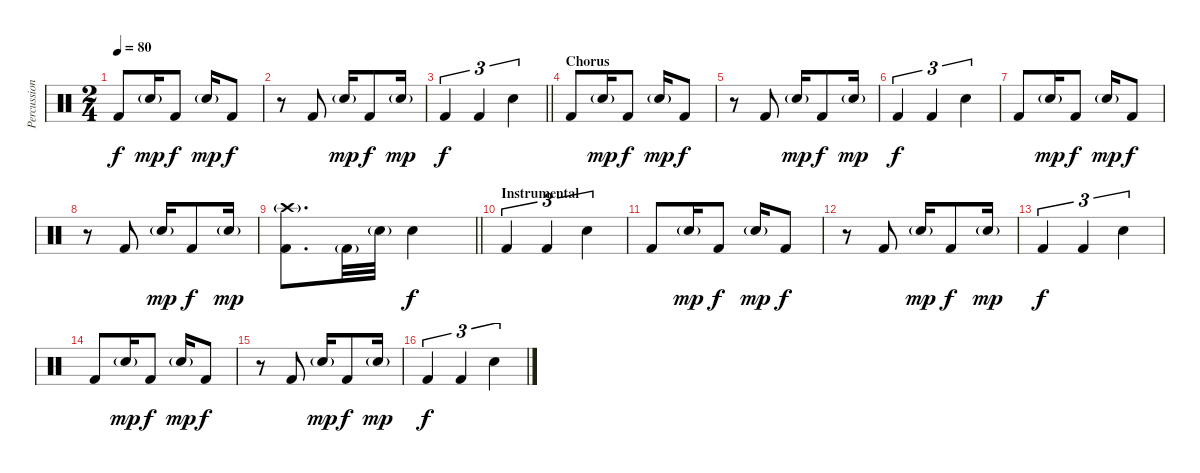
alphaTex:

\track ("Percussion" "Percussion") {solo instrument percussion}
\staff {score}
\articulation defaults
\ts (2 4)
\tempo 80
\clef neutral
\ks c "Kick (hit) 2".8{dy f} "Snare (hit) 2"{g}.16{dy mp} "Kick (hit) 2".8{dy f} "Snare (hit) 2"{g}.16{dy mp} "Kick (hit) 2".8{dy f}
|
r.8 "Kick (hit) 2".8 "Snare (hit) 2"{g}.16{dy mp} "Kick (hit) 2".8{dy f} "Snare (hit) 2"{g}.16{dy mp} |
\barLineRight lightlight "Kick (hit) 2".4{tu (3 2) dy f} "Kick (hit) 2".4{tu (3 2)} "Snare (hit) 2".4{tu (3 2)}
|
\section ("" "Chorus")
"Kick (hit) 2".8 "Snare (hit) 2"{g}.16{dy mp} "Kick (hit) 2".8{dy f} "Snare (hit) 2"{g}.16{dy mp} "Kick (hit) 2".8{dy f} |
r.8 "Kick (hit) 2".8 "Snare (hit) 2"{g}.16{dy mp} "Kick (hit) 2".8{dy f} "Snare (hit) 2"{g}.16{dy mp} |
"Kick (hit) 2".4{tu (3 2) dy f} "Kick (hit) 2".4{tu (3 2)} "Snare (hit) 2".4{tu (3 2)} |
"Kick (hit) 2".8 "Snare (hit) 2"{g}.16{dy mp} "Kick (hit) 2".8{dy f} "Snare (hit) 2"{g}.16{dy mp} "Kick (hit) 2".8{dy f} |
r.8 "Kick (hit) 2".8 "Snare (hit) 2"{g}.16{dy mp} "Kick (hit) 2".8{dy f} "Snare (hit) 2"{g}.16{dy mp} |
\barLineRight lightlight
("Crash high (hit)"{g} "Kick (hit) 2").8{d} "Kick (hit) 2"{g}.32 "Snare (hit) 2"{g}.32 "Snare (hit) 2".4{dy f} |
\section ("" "Instrumental")
"Kick (hit) 2".4{tu (3 2)} "Kick (hit) 2".4{tu (3 2)} "Snare (hit) 2".4{tu (3 2)} |
"Kick (hit) 2".8 "Snare (hit) 2"{g}.16{dy mp} "Kick (hit) 2".8{dy f} "Snare (hit) 2"{g}.16{dy mp} "Kick (hit) 2".8{dy f} |
r.8 "Kick (hit) 2".8 "Snare (hit) 2"{g}.16{dy mp} "Kick (hit) 2".8{dy f} "Snare (hit) 2"{g}.16{dy mp} |
"Kick (hit) 2".4{tu (3 2) dy f} "Kick (hit) 2".4{tu (3 2)} "Snare (hit) 2".4{tu (3 2)} |
"Kick (hit) 2".8 "Snare (hit) 2"{g}.16{dy mp} "Kick (hit) 2".8{dy f} "Snare (hit) 2"{g}.16{dy mp} "Kick (hit) 2".8{dy f} |
r.8 "Kick (hit) 2".8 "Snare (hit) 2"{g}.16{dy mp} "Kick (hit) 2".8{dy f} "Snare (hit) 2"{g}.16{dy mp} |
"Kick (hit) 2".4{tu (3 2) dy f} "Kick (hit) 2".4{tu (3 2)} "Snare (hit) 2".4{tu (3 2)}
